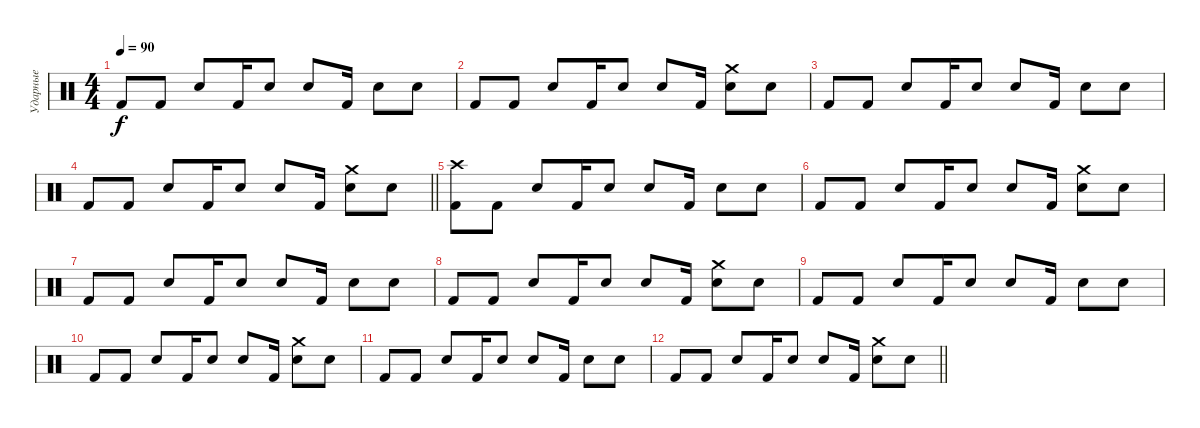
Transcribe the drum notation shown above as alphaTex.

\track ("Ударные" "Ударные") {instrument percussion}
\staff {score}
\articulation defaults
\ts (4 4)
\tempo 90
\clef neutral
\ks c "Kick (hit) 2".8{dy f} "Kick (hit) 2".8 "Snare (hit) 2".8 "Kick (hit) 2".16 "Snare (hit) 2".8 "Snare (hit) 2".8 "Kick (hit) 2".16 "Snare (hit) 2".8 "Snare (hit)".8
|
"Kick (hit) 2".8 "Kick (hit) 2".8 "Snare (hit) 2".8 "Kick (hit) 2".16 "Snare (hit) 2".8 "Snare (hit) 2".8 "Kick (hit) 2".16 ("Crash medium (hit)" "Snare (hit) 2").8 "Snare (hit)".8 |
"Kick (hit) 2".8 "Kick (hit) 2".8 "Snare (hit) 2".8 "Kick (hit) 2".16 "Snare (hit) 2".8 "Snare (hit) 2".8 "Kick (hit) 2".16 "Snare (hit) 2".8 "Snare (hit)".8 |
\barLineRight lightlight "Kick (hit) 2".8 "Kick (hit) 2".8 "Snare (hit) 2".8 "Kick (hit) 2".16 "Snare (hit) 2".8 "Snare (hit) 2".8 "Kick (hit) 2".16
("Crash medium (hit)" "Snare (hit) 2").8 "Snare (hit)".8 |
("Crash high (hit)" "Kick (hit) 2").8 "Kick (hit) 2".8 "Snare (hit) 2".8 "Kick (hit) 2".16 "Snare (hit) 2".8 "Snare (hit) 2".8 "Kick (hit) 2".16 "Snare (hit) 2".8 "Snare (hit)".8 |
"Kick (hit) 2".8 "Kick (hit) 2".8 "Snare (hit) 2".8 "Kick (hit) 2".16 "Snare (hit) 2".8 "Snare (hit) 2".8 "Kick (hit) 2".16 ("Crash medium (hit)" "Snare (hit) 2").8 "Snare (hit)".8 |
"Kick (hit) 2".8 "Kick (hit) 2".8 "Snare (hit) 2".8 "Kick (hit) 2".16 "Snare (hit) 2".8 "Snare (hit) 2".8 "Kick (hit) 2".16 "Snare (hit) 2".8 "Snare (hit)".8 |
"Kick (hit) 2".8 "Kick (hit) 2".8 "Snare (hit) 2".8 "Kick (hit) 2".16 "Snare (hit) 2".8 "Snare (hit) 2".8 "Kick (hit) 2".16 ("Crash medium (hit)" "Snare (hit) 2").8 "Snare (hit)".8 |
"Kick (hit) 2".8 "Kick (hit) 2".8 "Snare (hit) 2".8 "Kick (hit) 2".16 "Snare (hit) 2".8 "Snare (hit) 2".8 "Kick (hit) 2".16 "Snare (hit) 2".8 "Snare (hit)".8 |
"Kick (hit) 2".8 "Kick (hit) 2".8 "Snare (hit) 2".8 "Kick (hit) 2".16 "Snare (hit) 2".8 "Snare (hit) 2".8 "Kick (hit) 2".16 ("Crash medium (hit)" "Snare (hit) 2").8 "Snare (hit)".8 |
"Kick (hit) 2".8 "Kick (hit) 2".8 "Snare (hit) 2".8 "Kick (hit) 2".16 "Snare (hit) 2".8 "Snare (hit) 2".8 "Kick (hit) 2".16 "Snare (hit) 2".8 "Snare (hit)".8 |
\barLineRight lightlight "Kick (hit) 2".8 "Kick (hit) 2".8 "Snare (hit) 2".8 "Kick (hit) 2".16 "Snare (hit) 2".8 "Snare (hit) 2".8 "Kick (hit) 2".16
("Crash medium (hit)" "Snare (hit) 2").8 "Snare (hit)".8
